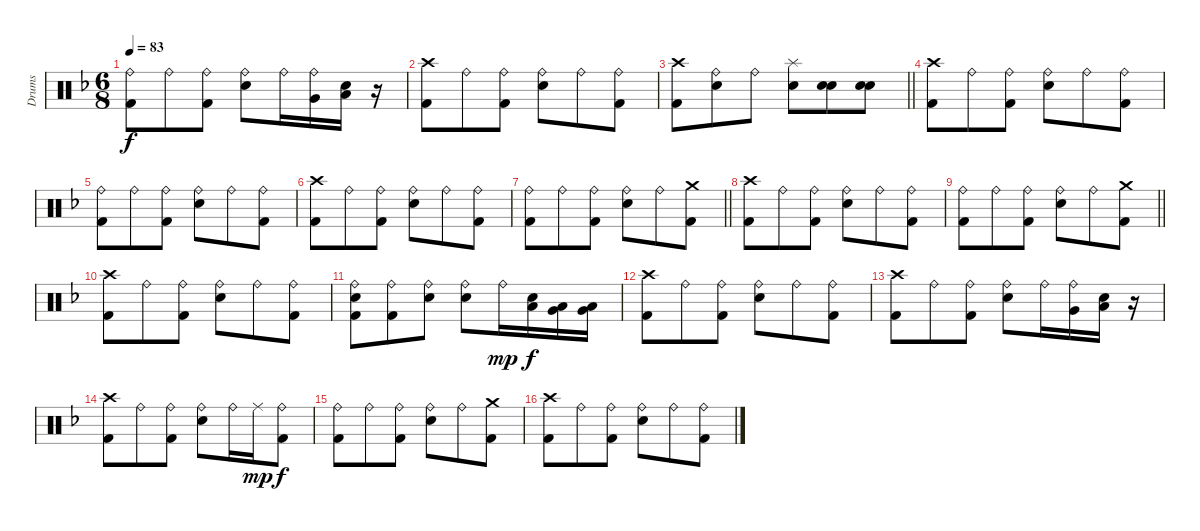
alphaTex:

\track ("Drums" "Drums") {instrument percussion}
\staff {score}
\articulation defaults
\ts (6 8)
\tempo 83
\clef neutral
\ks f
("Ride (bell)" "Kick (hit) 2").8{dy f} "Ride (bell)".8 ("Ride (bell)" "Kick (hit) 2").8 ("Ride (bell)" "Snare (hit) 2").8 "Ride (bell)".16 ("Ride (bell)" "Very Low Tom (hit)").16 ("Low Tom (hit)" "Snare (hit) 2").16 r.16 |
("Crash high (hit)" "Kick (hit) 2").8 "Ride (bell)".8 ("Ride (bell)" "Kick (hit) 2").8 ("Ride (bell)" "Snare (hit) 2").8 "Ride (bell)".8 ("Ride (bell)" "Kick (hit) 2").8 |
\barLineRight lightlight
("Crash high (hit)" "Kick (hit) 2").8 ("Ride (bell)" "Snare (hit) 2").8 "Ride (bell)".8 ("Splash (hit)" "Snare (hit) 2").8 ("Snare (hit) 2" "Snare (hit) 2").8 ("Snare (hit) 2" "Snare (hit) 2").8 |
("Crash high (hit)" "Kick (hit) 2").8 "Ride (bell)".8 ("Ride (bell)" "Kick (hit) 2").8 ("Ride (bell)" "Snare (hit) 2").8 "Ride (bell)".8 ("Ride (bell)" "Kick (hit) 2").8 |
("Ride (bell)" "Kick (hit) 2").8 "Ride (bell)".8 ("Ride (bell)" "Kick (hit) 2").8 ("Ride (bell)" "Snare (hit) 2").8 "Ride (bell)".8 ("Ride (bell)" "Kick (hit) 2").8 |
("Crash high (hit)" "Kick (hit) 2").8 "Ride (bell)".8 ("Ride (bell)" "Kick (hit) 2").8 ("Ride (bell)" "Snare (hit) 2").8 "Ride (bell)".8 ("Ride (bell)" "Kick (hit) 2").8 |
\barLineRight lightlight
("Ride (bell)" "Kick (hit) 2").8 "Ride (bell)".8 ("Ride (bell)" "Kick (hit) 2").8 ("Ride (bell)" "Snare (hit) 2").8 "Ride (bell)".8 ("Crash medium (hit)" "Kick (hit) 2").8 |
("Crash high (hit)" "Kick (hit) 2").8 "Ride (bell)".8 ("Ride (bell)" "Kick (hit) 2").8 ("Ride (bell)" "Snare (hit) 2").8 "Ride (bell)".8 ("Ride (bell)" "Kick (hit) 2").8 |
\barLineRight lightlight
("Ride (bell)" "Kick (hit) 2").8 "Ride (bell)".8 ("Ride (bell)" "Kick (hit) 2").8 ("Ride (bell)" "Snare (hit) 2").8 "Ride (bell)".8 ("Crash medium (hit)" "Kick (hit) 2").8 |
("Crash high (hit)" "Kick (hit) 2").8 "Ride (bell)".8 ("Ride (bell)" "Kick (hit) 2").8 ("Ride (bell)" "Snare (hit) 2").8 "Ride (bell)".8 ("Ride (bell)" "Kick (hit) 2").8 |
("Ride (bell)" "Snare (hit) 2" "Kick (hit) 2").8 ("Ride (bell)" "Kick (hit) 2").8 ("Ride (bell)" "Snare (hit) 2").8 ("Ride (bell)" "Snare (hit) 2").8 "Ride (bell)".16{dy mp} ("Low Tom (hit)" "Snare (hit) 2").16{dy f} ("Low Tom (hit)" "Very Low Tom (hit)").16 ("Very Low Tom (hit)" "Low Floor Tom (hit)").16 |
("Crash high (hit)" "Kick (hit) 2").8 "Ride (bell)".8 ("Ride (bell)" "Kick (hit) 2").8 ("Ride (bell)" "Snare (hit) 2").8 "Ride (bell)".8 ("Ride (bell)" "Kick (hit) 2").8 |
("Crash high (hit)" "Kick (hit) 2").8 "Ride (bell)".8 ("Ride (bell)" "Kick (hit) 2").8 ("Ride (bell)" "Snare (hit) 2").8 "Ride (bell)".16 ("Ride (bell)" "Very Low Tom (hit)").16 ("Low Tom (hit)" "Snare (hit) 2").16 r.16 |
("Crash high (hit)" "Kick (hit) 2").8 "Ride (bell)".8 ("Ride (bell)" "Kick (hit) 2").8 ("Ride (bell)" "Snare (hit) 2").8 "Ride (bell)".16 "Ride (middle)".16{dy mp} ("Ride (bell)" "Kick (hit) 2").8{dy f} |
("Ride (bell)" "Kick (hit) 2").8 "Ride (bell)".8 ("Ride (bell)" "Kick (hit) 2").8 ("Ride (bell)" "Snare (hit) 2").8 "Ride (bell)".8 ("Crash medium (hit)" "Kick (hit) 2").8 |
("Crash high (hit)" "Kick (hit) 2").8 "Ride (bell)".8 ("Ride (bell)" "Kick (hit) 2").8 ("Ride (bell)" "Snare (hit) 2").8 "Ride (bell)".8 ("Ride (bell)" "Kick (hit) 2").8
